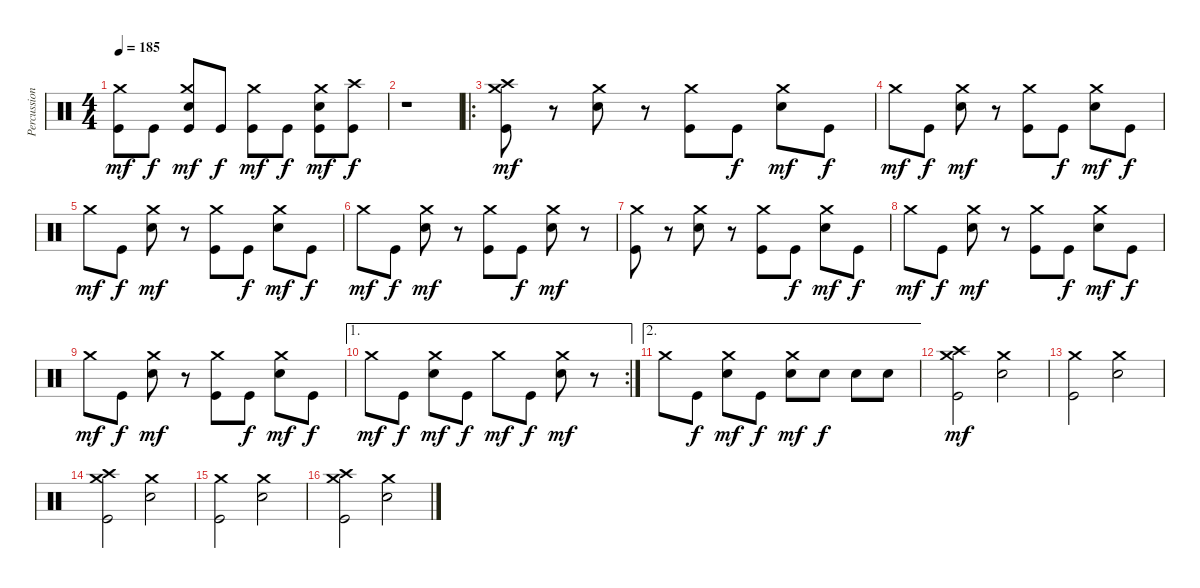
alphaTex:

\track ("Percussions" "Percussion") {instrument percussion}
\staff {score}
\articulation defaults
\ts (4 4)
\tempo 185
\clef neutral
\ks c
("Kick (hit)" "Crash medium (hit)").8{dy mf} "Kick (hit)".8{dy f} ("Kick (hit)" "Electric Snare (hit)" "Crash medium (hit)").8{dy mf} "Kick (hit)".8{dy f} ("Kick (hit)" "Crash medium (hit)").8{dy mf} "Kick (hit)".8{dy f} ("Kick (hit)" "Electric Snare (hit)" "Crash medium (hit)").8{dy mf} ("Kick (hit)" "Crash high (hit)").8{dy f} |
r.1 |
\ro
("Kick (hit)" "Crash medium (hit)" "Crash high (hit)").8{dy mf} r.8 ("Electric Snare (hit)" "Crash medium (hit)").8 r.8 ("Kick (hit)" "Crash medium (hit)").8 "Kick (hit)".8{dy f} ("Electric Snare (hit)" "Crash medium (hit)").8{dy mf} "Kick (hit)".8{dy f} |
"Crash medium (hit)".8{dy mf} "Kick (hit)".8{dy f} ("Electric Snare (hit)" "Crash medium (hit)").8{dy mf} r.8 ("Kick (hit)" "Crash medium (hit)").8 "Kick (hit)".8{dy f} ("Electric Snare (hit)" "Crash medium (hit)").8{dy mf} "Kick (hit)".8{dy f} |
"Crash medium (hit)".8{dy mf} "Kick (hit)".8{dy f} ("Electric Snare (hit)" "Crash medium (hit)").8{dy mf} r.8 ("Kick (hit)" "Crash medium (hit)").8 "Kick (hit)".8{dy f} ("Electric Snare (hit)" "Crash medium (hit)").8{dy mf} "Kick (hit)".8{dy f} |
"Crash medium (hit)".8{dy mf} "Kick (hit)".8{dy f} ("Electric Snare (hit)" "Crash medium (hit)").8{dy mf} r.8 ("Kick (hit)" "Crash medium (hit)").8 "Kick (hit)".8{dy f} ("Electric Snare (hit)" "Crash medium (hit)").8{dy mf} r.8 |
("Kick (hit)" "Crash medium (hit)").8 r.8 ("Electric Snare (hit)" "Crash medium (hit)").8 r.8 ("Kick (hit)" "Crash medium (hit)").8 "Kick (hit)".8{dy f} ("Electric Snare (hit)" "Crash medium (hit)").8{dy mf} "Kick (hit)".8{dy f} |
"Crash medium (hit)".8{dy mf} "Kick (hit)".8{dy f} ("Electric Snare (hit)" "Crash medium (hit)").8{dy mf} r.8 ("Kick (hit)" "Crash medium (hit)").8 "Kick (hit)".8{dy f} ("Electric Snare (hit)" "Crash medium (hit)").8{dy mf} "Kick (hit)".8{dy f} |
"Crash medium (hit)".8{dy mf} "Kick (hit)".8{dy f} ("Electric Snare (hit)" "Crash medium (hit)").8{dy mf} r.8 ("Kick (hit)" "Crash medium (hit)").8 "Kick (hit)".8{dy f} ("Electric Snare (hit)" "Crash medium (hit)").8{dy mf} "Kick (hit)".8{dy f} |
\ae 1
\rc 2 "Crash medium (hit)".8{dy mf} "Kick (hit)".8{dy f}
("Electric Snare (hit)" "Crash medium (hit)").8{dy mf} "Kick (hit)".8{dy f} "Crash medium (hit)".8{dy mf} "Kick (hit)".8{dy f} ("Electric Snare (hit)" "Crash medium (hit)").8{dy mf} r.8 |
\ae 2 "Crash medium (hit)".8 "Kick (hit)".8{dy f}
("Electric Snare (hit)" "Crash medium (hit)").8{dy mf} "Kick (hit)".8{dy f} ("Electric Snare (hit)" "Crash medium (hit)").8{dy mf} "Electric Snare (hit)".8{dy f} "Electric Snare (hit)".8 "Electric Snare (hit)".8 |
("Kick (hit)" "Crash medium (hit)" "Crash high (hit)").2{dy mf} ("Electric Snare (hit)" "Crash medium (hit)").2 |
("Kick (hit)" "Crash medium (hit)").2 ("Electric Snare (hit)" "Crash medium (hit)").2 |
("Kick (hit)" "Crash medium (hit)" "Crash high (hit)").2 ("Electric Snare (hit)" "Crash medium (hit)").2 |
("Kick (hit)" "Crash medium (hit)").2 ("Electric Snare (hit)" "Crash medium (hit)").2 |
("Kick (hit)" "Crash medium (hit)" "Crash high (hit)").2 ("Electric Snare (hit)" "Crash medium (hit)").2
